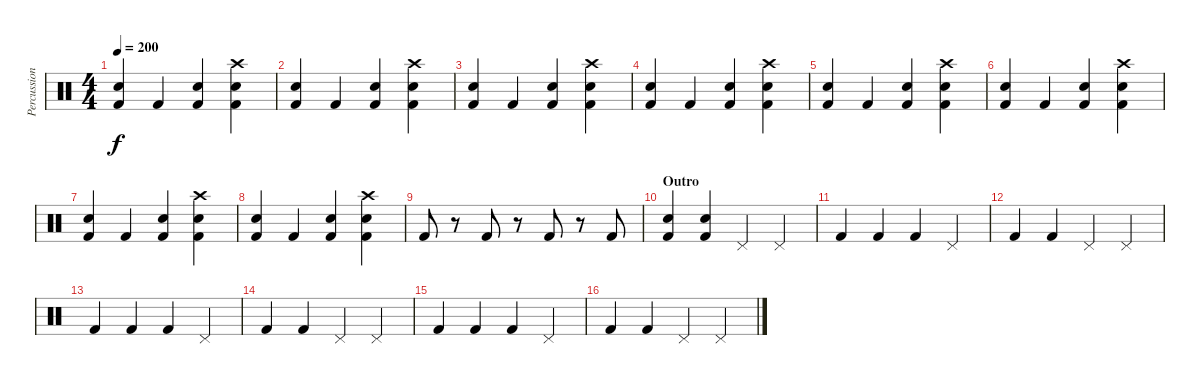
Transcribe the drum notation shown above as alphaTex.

\track ("Percussion" "Percussion") {instrument percussion}
\staff {score}
\articulation defaults
\ts (4 4)
\tempo 200
\clef neutral
\ks c
("Snare (hit) 2" "Kick (hit) 2").4{dy f} "Kick (hit) 2".4 ("Snare (hit) 2" "Kick (hit) 2").4 ("Crash high (hit)" "Snare (hit) 2" "Kick (hit) 2").4 |
("Snare (hit) 2" "Kick (hit) 2").4 "Kick (hit) 2".4 ("Snare (hit) 2" "Kick (hit) 2").4 ("Crash high (hit)" "Snare (hit) 2" "Kick (hit) 2").4 |
("Snare (hit) 2" "Kick (hit) 2").4 "Kick (hit) 2".4 ("Snare (hit) 2" "Kick (hit) 2").4 ("Crash high (hit)" "Snare (hit) 2" "Kick (hit) 2").4 |
("Snare (hit) 2" "Kick (hit) 2").4 "Kick (hit) 2".4 ("Snare (hit) 2" "Kick (hit) 2").4 ("Crash high (hit)" "Snare (hit) 2" "Kick (hit) 2").4 |
("Snare (hit) 2" "Kick (hit) 2").4 "Kick (hit) 2".4 ("Snare (hit) 2" "Kick (hit) 2").4 ("Crash high (hit)" "Snare (hit) 2" "Kick (hit) 2").4 |
("Snare (hit) 2" "Kick (hit) 2").4 "Kick (hit) 2".4 ("Snare (hit) 2" "Kick (hit) 2").4 ("Crash high (hit)" "Snare (hit) 2" "Kick (hit) 2").4 |
("Snare (hit) 2" "Kick (hit) 2").4 "Kick (hit) 2".4 ("Snare (hit) 2" "Kick (hit) 2").4 ("Crash high (hit)" "Snare (hit) 2" "Kick (hit) 2").4 |
("Snare (hit) 2" "Kick (hit) 2").4 "Kick (hit) 2".4 ("Snare (hit) 2" "Kick (hit) 2").4 ("Crash high (hit)" "Snare (hit) 2" "Kick (hit) 2").4 |
"Kick (hit) 2".8 r.8 "Kick (hit) 2".8 r.8 "Kick (hit) 2".8 r.8 "Kick (hit) 2".8 |
\section ("" "Outro")
("Snare (hit) 2" "Kick (hit) 2").4 ("Snare (hit) 2" "Kick (hit) 2").4 "Pedal Hi-Hat (hit)".4 "Pedal Hi-Hat (hit)".4 |
"Kick (hit) 2".4 "Kick (hit) 2".4 "Kick (hit) 2".4 "Pedal Hi-Hat (hit)".4 |
"Kick (hit) 2".4 "Kick (hit) 2".4 "Pedal Hi-Hat (hit)".4 "Pedal Hi-Hat (hit)".4 |
"Kick (hit) 2".4 "Kick (hit) 2".4 "Kick (hit) 2".4 "Pedal Hi-Hat (hit)".4 |
"Kick (hit) 2".4 "Kick (hit) 2".4 "Pedal Hi-Hat (hit)".4 "Pedal Hi-Hat (hit)".4 |
"Kick (hit) 2".4 "Kick (hit) 2".4 "Kick (hit) 2".4 "Pedal Hi-Hat (hit)".4 |
"Kick (hit) 2".4 "Kick (hit) 2".4 "Pedal Hi-Hat (hit)".4 "Pedal Hi-Hat (hit)".4
